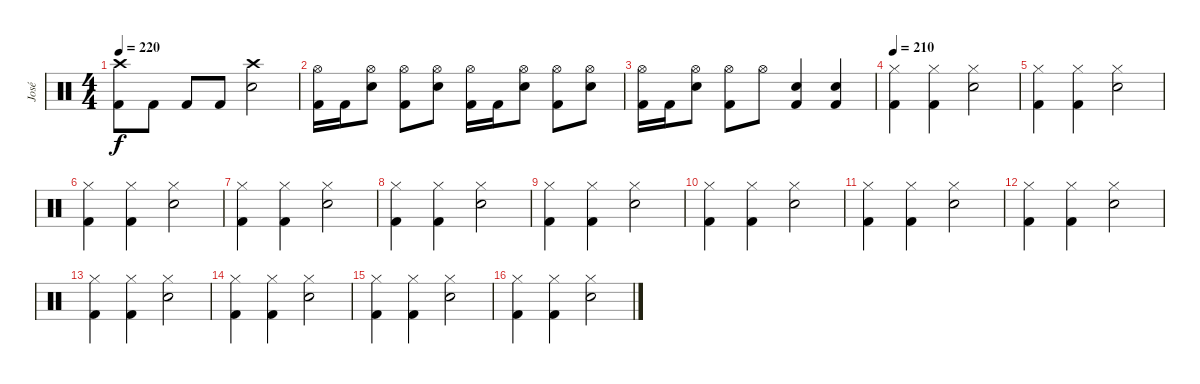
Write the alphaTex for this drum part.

\track ("José" "José") {instrument percussion}
\staff {score}
\articulation defaults
\ts (4 4)
\tempo 220
\clef neutral
\ks c
("Crash high (hit)" "Kick (hit) 2").8{dy f} "Kick (hit) 2".8 "Kick (hit) 2".8 "Kick (hit) 2".8 ("Crash high (hit)" "Electric Snare (hit)").2 |
("Hi-Hat (open)" "Kick (hit) 2").16 "Kick (hit) 2".16 ("Hi-Hat (open)" "Electric Snare (hit)").8 ("Hi-Hat (open)" "Kick (hit) 2").8 ("Hi-Hat (open)" "Electric Snare (hit)").8 ("Hi-Hat (open)" "Kick (hit) 2").16 "Kick (hit) 2".16 ("Hi-Hat (open)" "Electric Snare (hit)").8 ("Hi-Hat (open)" "Kick (hit) 2").8 ("Hi-Hat (open)" "Electric Snare (hit)").8 |
("Hi-Hat (open)" "Kick (hit) 2").16 "Kick (hit) 2".16 ("Hi-Hat (open)" "Electric Snare (hit)").8 ("Hi-Hat (open)" "Kick (hit) 2").8 "Hi-Hat (open)".8 ("Electric Snare (hit)" "Kick (hit) 2").4 ("Electric Snare (hit)" "Kick (hit) 2").4 |
\tempo 210
("Hi-Hat (closed)" "Kick (hit) 2").4 ("Hi-Hat (closed)" "Kick (hit) 2").4 ("Hi-Hat (closed)" "Electric Snare (hit)").2 |
("Hi-Hat (closed)" "Kick (hit) 2").4 ("Hi-Hat (closed)" "Kick (hit) 2").4 ("Hi-Hat (closed)" "Electric Snare (hit)").2 |
("Hi-Hat (closed)" "Kick (hit) 2").4 ("Hi-Hat (closed)" "Kick (hit) 2").4 ("Hi-Hat (closed)" "Electric Snare (hit)").2 |
("Hi-Hat (closed)" "Kick (hit) 2").4 ("Hi-Hat (closed)" "Kick (hit) 2").4 ("Hi-Hat (closed)" "Electric Snare (hit)").2 |
("Hi-Hat (closed)" "Kick (hit) 2").4 ("Hi-Hat (closed)" "Kick (hit) 2").4 ("Hi-Hat (closed)" "Electric Snare (hit)").2 |
("Hi-Hat (closed)" "Kick (hit) 2").4 ("Hi-Hat (closed)" "Kick (hit) 2").4 ("Hi-Hat (closed)" "Electric Snare (hit)").2 |
("Hi-Hat (closed)" "Kick (hit) 2").4 ("Hi-Hat (closed)" "Kick (hit) 2").4 ("Hi-Hat (closed)" "Electric Snare (hit)").2 |
("Hi-Hat (closed)" "Kick (hit) 2").4 ("Hi-Hat (closed)" "Kick (hit) 2").4 ("Hi-Hat (closed)" "Electric Snare (hit)").2 |
("Hi-Hat (closed)" "Kick (hit) 2").4 ("Hi-Hat (closed)" "Kick (hit) 2").4 ("Hi-Hat (closed)" "Electric Snare (hit)").2 |
("Hi-Hat (closed)" "Kick (hit) 2").4 ("Hi-Hat (closed)" "Kick (hit) 2").4 ("Hi-Hat (closed)" "Electric Snare (hit)").2 |
("Hi-Hat (closed)" "Kick (hit) 2").4 ("Hi-Hat (closed)" "Kick (hit) 2").4 ("Hi-Hat (closed)" "Electric Snare (hit)").2 |
("Hi-Hat (closed)" "Kick (hit) 2").4 ("Hi-Hat (closed)" "Kick (hit) 2").4 ("Hi-Hat (closed)" "Electric Snare (hit)").2 |
("Hi-Hat (closed)" "Kick (hit) 2").4 ("Hi-Hat (closed)" "Kick (hit) 2").4 ("Hi-Hat (closed)" "Electric Snare (hit)").2
